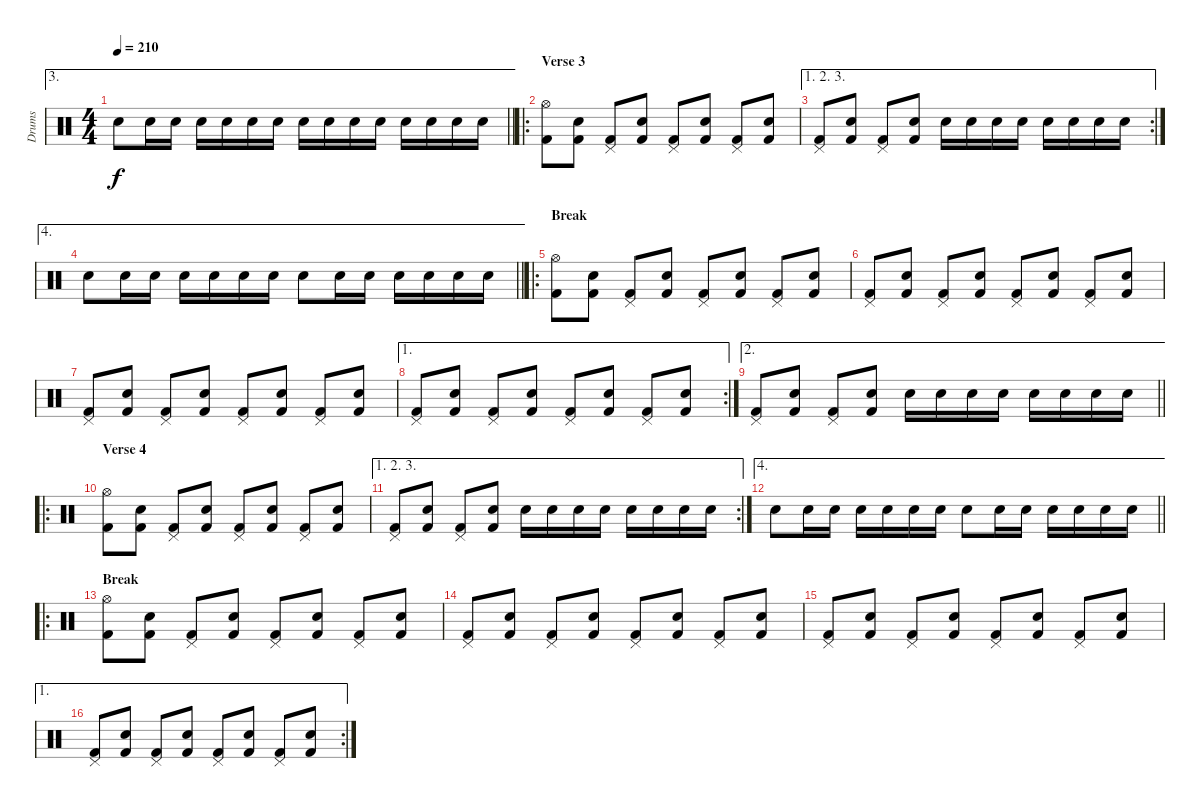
\track ("Drums" "Drums") {instrument percussion}
\staff {score}
\articulation defaults
\ae 3
\ts (4 4)
\tempo 210
\clef neutral
\barLineRight lightlight
\ks c "Snare (hit) 2".8{dy f} "Snare (hit) 2".16 "Snare (hit) 2".16 "Snare (hit) 2".16 "Snare (hit) 2".16 "Snare (hit) 2".16 "Snare (hit) 2".16 "Snare (hit) 2".16 "Snare (hit) 2".16 "Snare (hit) 2".16 "Snare (hit) 2".16 "Snare (hit) 2".16 "Snare (hit) 2".16 "Snare (hit) 2".16 "Snare (hit) 2".16
|
\ro
\section ("" "Verse 3")
("Hi-Hat (open)" "Kick (hit) 2").8 ("Snare (hit) 2" "Kick (hit) 2").8 ("Pedal Hi-Hat (hit)" "Kick (hit) 2").8 ("Snare (hit) 2" "Kick (hit) 2").8 ("Pedal Hi-Hat (hit)" "Kick (hit) 2").8 ("Snare (hit) 2" "Kick (hit) 2").8 ("Pedal Hi-Hat (hit)" "Kick (hit) 2").8 ("Snare (hit) 2" "Kick (hit) 2").8 |
\ae (1 2 3)
\rc 2
("Pedal Hi-Hat (hit)" "Kick (hit) 2").8 ("Snare (hit) 2" "Kick (hit) 2").8 ("Pedal Hi-Hat (hit)" "Kick (hit) 2").8 ("Snare (hit) 2" "Kick (hit) 2").8 "Snare (hit) 2".16 "Snare (hit) 2".16 "Snare (hit) 2".16 "Snare (hit) 2".16 "Snare (hit) 2".16 "Snare (hit) 2".16 "Snare (hit) 2".16 "Snare (hit) 2".16 |
\ae 4
\barLineRight lightlight "Snare (hit) 2".8 "Snare (hit) 2".16 "Snare (hit) 2".16 "Snare (hit) 2".16 "Snare (hit) 2".16 "Snare (hit) 2".16 "Snare (hit) 2".16 "Snare (hit) 2".8 "Snare (hit) 2".16 "Snare (hit) 2".16 "Snare (hit) 2".16 "Snare (hit) 2".16 "Snare (hit) 2".16 "Snare (hit) 2".16
|
\ro
\section ("" "Break")
("Hi-Hat (open)" "Kick (hit) 2").8 ("Snare (hit) 2" "Kick (hit) 2").8 ("Pedal Hi-Hat (hit)" "Kick (hit) 2").8 ("Snare (hit) 2" "Kick (hit) 2").8 ("Pedal Hi-Hat (hit)" "Kick (hit) 2").8 ("Snare (hit) 2" "Kick (hit) 2").8 ("Pedal Hi-Hat (hit)" "Kick (hit) 2").8 ("Snare (hit) 2" "Kick (hit) 2").8 |
("Pedal Hi-Hat (hit)" "Kick (hit) 2").8 ("Snare (hit) 2" "Kick (hit) 2").8 ("Pedal Hi-Hat (hit)" "Kick (hit) 2").8 ("Snare (hit) 2" "Kick (hit) 2").8 ("Pedal Hi-Hat (hit)" "Kick (hit) 2").8 ("Snare (hit) 2" "Kick (hit) 2").8 ("Pedal Hi-Hat (hit)" "Kick (hit) 2").8 ("Snare (hit) 2" "Kick (hit) 2").8 |
("Pedal Hi-Hat (hit)" "Kick (hit) 2").8 ("Snare (hit) 2" "Kick (hit) 2").8 ("Pedal Hi-Hat (hit)" "Kick (hit) 2").8 ("Snare (hit) 2" "Kick (hit) 2").8 ("Pedal Hi-Hat (hit)" "Kick (hit) 2").8 ("Snare (hit) 2" "Kick (hit) 2").8 ("Pedal Hi-Hat (hit)" "Kick (hit) 2").8 ("Snare (hit) 2" "Kick (hit) 2").8 |
\ae 1
\rc 2
("Pedal Hi-Hat (hit)" "Kick (hit) 2").8 ("Snare (hit) 2" "Kick (hit) 2").8 ("Pedal Hi-Hat (hit)" "Kick (hit) 2").8 ("Snare (hit) 2" "Kick (hit) 2").8 ("Pedal Hi-Hat (hit)" "Kick (hit) 2").8 ("Snare (hit) 2" "Kick (hit) 2").8 ("Pedal Hi-Hat (hit)" "Kick (hit) 2").8 ("Snare (hit) 2" "Kick (hit) 2").8 |
\ae 2
\barLineRight lightlight
("Pedal Hi-Hat (hit)" "Kick (hit) 2").8 ("Snare (hit) 2" "Kick (hit) 2").8 ("Pedal Hi-Hat (hit)" "Kick (hit) 2").8 ("Snare (hit) 2" "Kick (hit) 2").8 "Snare (hit) 2".16 "Snare (hit) 2".16 "Snare (hit) 2".16 "Snare (hit) 2".16 "Snare (hit) 2".16 "Snare (hit) 2".16 "Snare (hit) 2".16 "Snare (hit) 2".16 |
\ro
\section ("" "Verse 4")
("Hi-Hat (open)" "Kick (hit) 2").8 ("Snare (hit) 2" "Kick (hit) 2").8 ("Pedal Hi-Hat (hit)" "Kick (hit) 2").8 ("Snare (hit) 2" "Kick (hit) 2").8 ("Pedal Hi-Hat (hit)" "Kick (hit) 2").8 ("Snare (hit) 2" "Kick (hit) 2").8 ("Pedal Hi-Hat (hit)" "Kick (hit) 2").8 ("Snare (hit) 2" "Kick (hit) 2").8 |
\ae (1 2 3)
\rc 2
("Pedal Hi-Hat (hit)" "Kick (hit) 2").8 ("Snare (hit) 2" "Kick (hit) 2").8 ("Pedal Hi-Hat (hit)" "Kick (hit) 2").8 ("Snare (hit) 2" "Kick (hit) 2").8 "Snare (hit) 2".16 "Snare (hit) 2".16 "Snare (hit) 2".16 "Snare (hit) 2".16 "Snare (hit) 2".16 "Snare (hit) 2".16 "Snare (hit) 2".16 "Snare (hit) 2".16 |
\ae 4
\barLineRight lightlight "Snare (hit) 2".8 "Snare (hit) 2".16 "Snare (hit) 2".16 "Snare (hit) 2".16 "Snare (hit) 2".16 "Snare (hit) 2".16 "Snare (hit) 2".16 "Snare (hit) 2".8 "Snare (hit) 2".16 "Snare (hit) 2".16 "Snare (hit) 2".16 "Snare (hit) 2".16 "Snare (hit) 2".16 "Snare (hit) 2".16
|
\ro
\section ("" "Break")
("Hi-Hat (open)" "Kick (hit) 2").8 ("Snare (hit) 2" "Kick (hit) 2").8 ("Pedal Hi-Hat (hit)" "Kick (hit) 2").8 ("Snare (hit) 2" "Kick (hit) 2").8 ("Pedal Hi-Hat (hit)" "Kick (hit) 2").8 ("Snare (hit) 2" "Kick (hit) 2").8 ("Pedal Hi-Hat (hit)" "Kick (hit) 2").8 ("Snare (hit) 2" "Kick (hit) 2").8 |
("Pedal Hi-Hat (hit)" "Kick (hit) 2").8 ("Snare (hit) 2" "Kick (hit) 2").8 ("Pedal Hi-Hat (hit)" "Kick (hit) 2").8 ("Snare (hit) 2" "Kick (hit) 2").8 ("Pedal Hi-Hat (hit)" "Kick (hit) 2").8 ("Snare (hit) 2" "Kick (hit) 2").8 ("Pedal Hi-Hat (hit)" "Kick (hit) 2").8 ("Snare (hit) 2" "Kick (hit) 2").8 |
("Pedal Hi-Hat (hit)" "Kick (hit) 2").8 ("Snare (hit) 2" "Kick (hit) 2").8 ("Pedal Hi-Hat (hit)" "Kick (hit) 2").8 ("Snare (hit) 2" "Kick (hit) 2").8 ("Pedal Hi-Hat (hit)" "Kick (hit) 2").8 ("Snare (hit) 2" "Kick (hit) 2").8 ("Pedal Hi-Hat (hit)" "Kick (hit) 2").8 ("Snare (hit) 2" "Kick (hit) 2").8 |
\ae 1
\rc 2
("Pedal Hi-Hat (hit)" "Kick (hit) 2").8 ("Snare (hit) 2" "Kick (hit) 2").8 ("Pedal Hi-Hat (hit)" "Kick (hit) 2").8 ("Snare (hit) 2" "Kick (hit) 2").8 ("Pedal Hi-Hat (hit)" "Kick (hit) 2").8 ("Snare (hit) 2" "Kick (hit) 2").8 ("Pedal Hi-Hat (hit)" "Kick (hit) 2").8 ("Snare (hit) 2" "Kick (hit) 2").8
